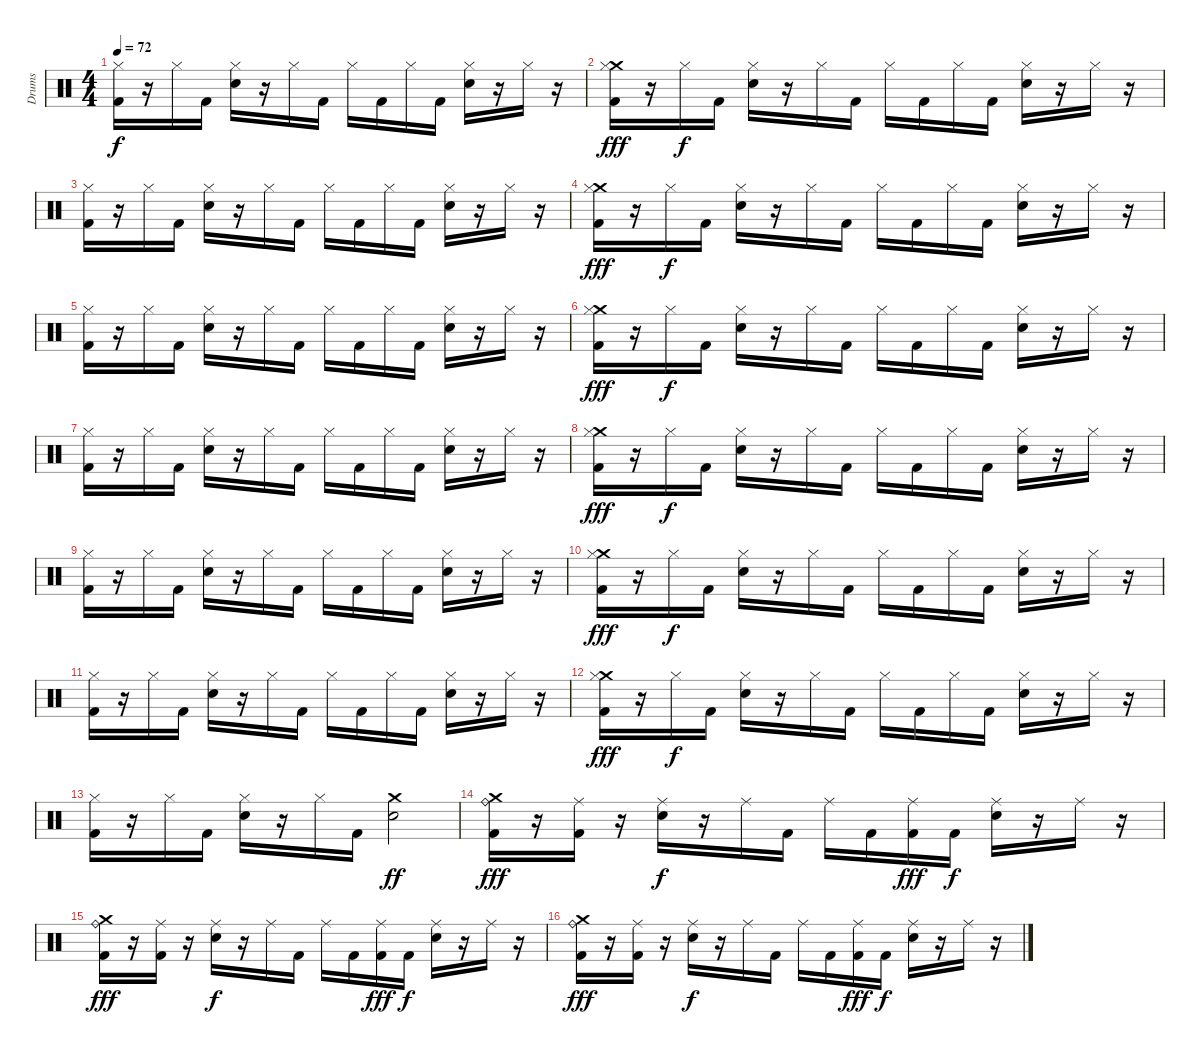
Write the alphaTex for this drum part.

\track ("Drums" "Drums") {instrument percussion}
\staff {score}
\articulation defaults
\ts (4 4)
\tempo 72
\clef neutral
\ks c
("Hi-Hat (closed)" "Kick (hit) 2").16{dy f} r.16 "Hi-Hat (closed)".16 "Kick (hit) 2".16 ("Hi-Hat (closed)" "Snare (hit) 2").16 r.16 "Hi-Hat (closed)".16 "Kick (hit) 2".16 "Hi-Hat (closed)".16 "Kick (hit) 2".16 "Hi-Hat (closed)".16 "Kick (hit) 2".16 ("Hi-Hat (closed)" "Snare (hit) 2").16 r.16 "Hi-Hat (closed)".16 r.16 |
("Crash medium (hit)" "Hi-Hat (closed)" "Kick (hit) 2").16{dy fff} r.16 "Hi-Hat (closed)".16{dy f} "Kick (hit) 2".16 ("Hi-Hat (closed)" "Snare (hit) 2").16 r.16 "Hi-Hat (closed)".16 "Kick (hit) 2".16 "Hi-Hat (closed)".16 "Kick (hit) 2".16 "Hi-Hat (closed)".16 "Kick (hit) 2".16 ("Hi-Hat (closed)" "Snare (hit) 2").16 r.16 "Hi-Hat (closed)".16 r.16 |
("Hi-Hat (closed)" "Kick (hit) 2").16 r.16 "Hi-Hat (closed)".16 "Kick (hit) 2".16 ("Hi-Hat (closed)" "Snare (hit) 2").16 r.16 "Hi-Hat (closed)".16 "Kick (hit) 2".16 "Hi-Hat (closed)".16 "Kick (hit) 2".16 "Hi-Hat (closed)".16 "Kick (hit) 2".16 ("Hi-Hat (closed)" "Snare (hit) 2").16 r.16 "Hi-Hat (closed)".16 r.16 |
("Crash medium (hit)" "Hi-Hat (closed)" "Kick (hit) 2").16{dy fff} r.16 "Hi-Hat (closed)".16{dy f} "Kick (hit) 2".16 ("Hi-Hat (closed)" "Snare (hit) 2").16 r.16 "Hi-Hat (closed)".16 "Kick (hit) 2".16 "Hi-Hat (closed)".16 "Kick (hit) 2".16 "Hi-Hat (closed)".16 "Kick (hit) 2".16 ("Hi-Hat (closed)" "Snare (hit) 2").16 r.16 "Hi-Hat (closed)".16 r.16 |
("Hi-Hat (closed)" "Kick (hit) 2").16 r.16 "Hi-Hat (closed)".16 "Kick (hit) 2".16 ("Hi-Hat (closed)" "Snare (hit) 2").16 r.16 "Hi-Hat (closed)".16 "Kick (hit) 2".16 "Hi-Hat (closed)".16 "Kick (hit) 2".16 "Hi-Hat (closed)".16 "Kick (hit) 2".16 ("Hi-Hat (closed)" "Snare (hit) 2").16 r.16 "Hi-Hat (closed)".16 r.16 |
("Crash medium (hit)" "Hi-Hat (closed)" "Kick (hit) 2").16{dy fff} r.16 "Hi-Hat (closed)".16{dy f} "Kick (hit) 2".16 ("Hi-Hat (closed)" "Snare (hit) 2").16 r.16 "Hi-Hat (closed)".16 "Kick (hit) 2".16 "Hi-Hat (closed)".16 "Kick (hit) 2".16 "Hi-Hat (closed)".16 "Kick (hit) 2".16 ("Hi-Hat (closed)" "Snare (hit) 2").16 r.16 "Hi-Hat (closed)".16 r.16 |
("Hi-Hat (closed)" "Kick (hit) 2").16 r.16 "Hi-Hat (closed)".16 "Kick (hit) 2".16 ("Hi-Hat (closed)" "Snare (hit) 2").16 r.16 "Hi-Hat (closed)".16 "Kick (hit) 2".16 "Hi-Hat (closed)".16 "Kick (hit) 2".16 "Hi-Hat (closed)".16 "Kick (hit) 2".16 ("Hi-Hat (closed)" "Snare (hit) 2").16 r.16 "Hi-Hat (closed)".16 r.16 |
("Crash medium (hit)" "Hi-Hat (closed)" "Kick (hit) 2").16{dy fff} r.16 "Hi-Hat (closed)".16{dy f} "Kick (hit) 2".16 ("Hi-Hat (closed)" "Snare (hit) 2").16 r.16 "Hi-Hat (closed)".16 "Kick (hit) 2".16 "Hi-Hat (closed)".16 "Kick (hit) 2".16 "Hi-Hat (closed)".16 "Kick (hit) 2".16 ("Hi-Hat (closed)" "Snare (hit) 2").16 r.16 "Hi-Hat (closed)".16 r.16 |
("Hi-Hat (closed)" "Kick (hit) 2").16 r.16 "Hi-Hat (closed)".16 "Kick (hit) 2".16 ("Hi-Hat (closed)" "Snare (hit) 2").16 r.16 "Hi-Hat (closed)".16 "Kick (hit) 2".16 "Hi-Hat (closed)".16 "Kick (hit) 2".16 "Hi-Hat (closed)".16 "Kick (hit) 2".16 ("Hi-Hat (closed)" "Snare (hit) 2").16 r.16 "Hi-Hat (closed)".16 r.16 |
("Crash medium (hit)" "Hi-Hat (closed)" "Kick (hit) 2").16{dy fff} r.16 "Hi-Hat (closed)".16{dy f} "Kick (hit) 2".16 ("Hi-Hat (closed)" "Snare (hit) 2").16 r.16 "Hi-Hat (closed)".16 "Kick (hit) 2".16 "Hi-Hat (closed)".16 "Kick (hit) 2".16 "Hi-Hat (closed)".16 "Kick (hit) 2".16 ("Hi-Hat (closed)" "Snare (hit) 2").16 r.16 "Hi-Hat (closed)".16 r.16 |
("Hi-Hat (closed)" "Kick (hit) 2").16 r.16 "Hi-Hat (closed)".16 "Kick (hit) 2".16 ("Hi-Hat (closed)" "Snare (hit) 2").16 r.16 "Hi-Hat (closed)".16 "Kick (hit) 2".16 "Hi-Hat (closed)".16 "Kick (hit) 2".16 "Hi-Hat (closed)".16 "Kick (hit) 2".16 ("Hi-Hat (closed)" "Snare (hit) 2").16 r.16 "Hi-Hat (closed)".16 r.16 |
("Crash medium (hit)" "Hi-Hat (closed)" "Kick (hit) 2").16{dy fff} r.16 "Hi-Hat (closed)".16{dy f} "Kick (hit) 2".16 ("Hi-Hat (closed)" "Snare (hit) 2").16 r.16 "Hi-Hat (closed)".16 "Kick (hit) 2".16 "Hi-Hat (closed)".16 "Kick (hit) 2".16 "Hi-Hat (closed)".16 "Kick (hit) 2".16 ("Hi-Hat (closed)" "Snare (hit) 2").16 r.16 "Hi-Hat (closed)".16 r.16 |
("Hi-Hat (closed)" "Kick (hit) 2").16 r.16 "Hi-Hat (closed)".16 "Kick (hit) 2".16 ("Hi-Hat (closed)" "Snare (hit) 2").16 r.16 "Hi-Hat (closed)".16 "Kick (hit) 2".16 ("Snare (hit) 2" "Crash medium (hit)").2{dy ff} |
("Crash medium (hit)" "Ride (bell)" "Kick (hit) 2").16{dy fff} r.16 ("Ride (middle)" "Kick (hit) 2").16 r.16 ("Ride (middle)" "Snare (hit) 2").16{dy f} r.16 "Ride (middle)".16 "Kick (hit) 2".16 "Ride (middle)".16 "Kick (hit) 2".16 ("Ride (middle)" "Kick (hit) 2").16{dy fff} "Kick (hit) 2".16{dy f} ("Ride (middle)" "Snare (hit) 2").16 r.16 "Ride (middle)".16 r.16 |
("Crash medium (hit)" "Ride (bell)" "Kick (hit) 2").16{dy fff} r.16 ("Ride (middle)" "Kick (hit) 2").16 r.16 ("Ride (middle)" "Snare (hit) 2").16{dy f} r.16 "Ride (middle)".16 "Kick (hit) 2".16 "Ride (middle)".16 "Kick (hit) 2".16 ("Ride (middle)" "Kick (hit) 2").16{dy fff} "Kick (hit) 2".16{dy f} ("Ride (middle)" "Snare (hit) 2").16 r.16 "Ride (middle)".16 r.16 |
("Crash medium (hit)" "Ride (bell)" "Kick (hit) 2").16{dy fff} r.16 ("Ride (middle)" "Kick (hit) 2").16 r.16 ("Ride (middle)" "Snare (hit) 2").16{dy f} r.16 "Ride (middle)".16 "Kick (hit) 2".16 "Ride (middle)".16 "Kick (hit) 2".16 ("Ride (middle)" "Kick (hit) 2").16{dy fff} "Kick (hit) 2".16{dy f} ("Ride (middle)" "Snare (hit) 2").16 r.16 "Ride (middle)".16 r.16
